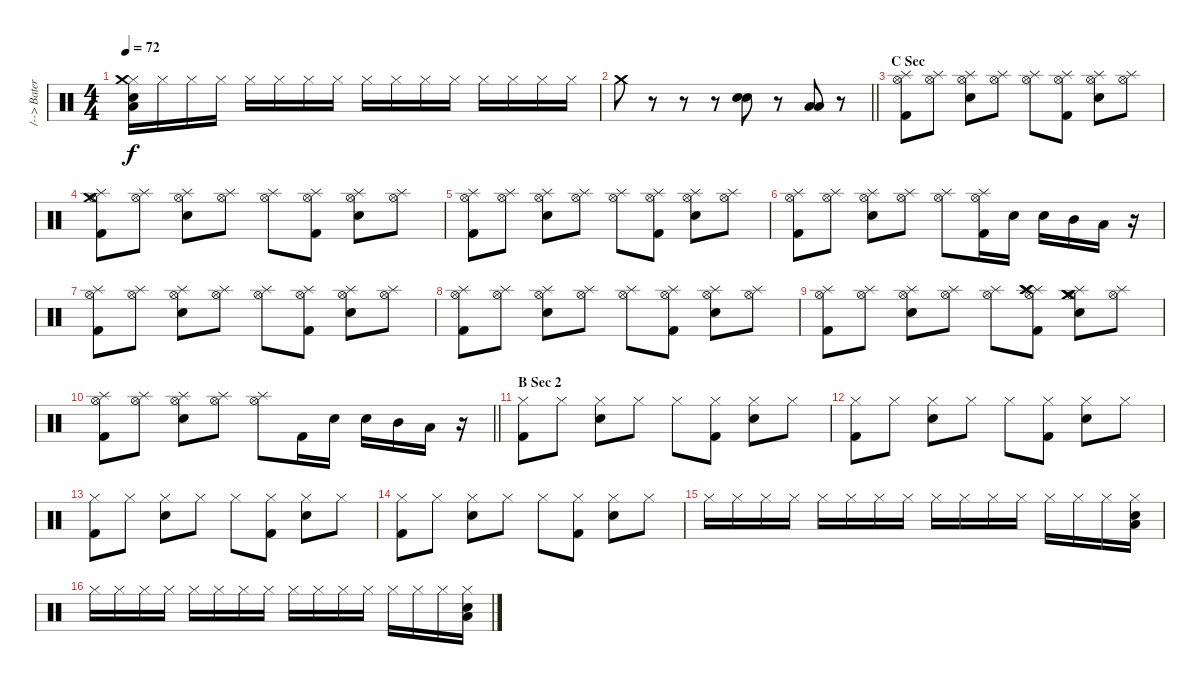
\track ("/--> Bateria <---/" "/--> Bater") {instrument percussion}
\staff {score}
\articulation defaults
\ts (4 4)
\tempo 72
\clef neutral
\ks c
("Hi-Hat (closed)" "Crash medium (hit)" "Snare (hit) 2" "Low Tom (hit)").16{dy f} "Hi-Hat (closed)".16 "Hi-Hat (closed)".16 "Hi-Hat (closed)".16 "Hi-Hat (closed)".16 "Hi-Hat (closed)".16 "Hi-Hat (closed)".16 "Hi-Hat (closed)".16 "Hi-Hat (closed)".16 "Hi-Hat (closed)".16 "Hi-Hat (closed)".16 "Hi-Hat (closed)".16 "Hi-Hat (closed)".16 "Hi-Hat (closed)".16 "Hi-Hat (closed)".16 "Hi-Hat (closed)".16 |
\barLineRight lightlight "Crash medium (hit)".8
r.8 r.8 r.8 ("Electric Snare (hit)" "Electric Snare (hit)").8 r.8 ("Low Tom (hit)" "Low Tom (hit)").8 r.8 |
\section ("" "C Sec")
("Hi-Hat (open)" "Splash (hit)" "Kick (hit) 2").8 ("Hi-Hat (open)" "Splash (hit)").8 ("Hi-Hat (open)" "Splash (hit)" "Electric Snare (hit)").8 ("Hi-Hat (open)" "Splash (hit)").8 ("Hi-Hat (open)" "Splash (hit)").8 ("Hi-Hat (open)" "Splash (hit)" "Kick (hit) 2").8 ("Hi-Hat (open)" "Splash (hit)" "Electric Snare (hit)").8 ("Hi-Hat (open)" "Splash (hit)").8 |
("Hi-Hat (open)" "Splash (hit)" "Crash medium (hit)" "Kick (hit) 2").8 ("Hi-Hat (open)" "Splash (hit)").8 ("Hi-Hat (open)" "Splash (hit)" "Electric Snare (hit)").8 ("Hi-Hat (open)" "Splash (hit)").8 ("Hi-Hat (open)" "Splash (hit)").8 ("Hi-Hat (open)" "Splash (hit)" "Kick (hit) 2").8 ("Hi-Hat (open)" "Splash (hit)" "Electric Snare (hit)").8 ("Hi-Hat (open)" "Splash (hit)").8 |
("Hi-Hat (open)" "Splash (hit)" "Kick (hit) 2").8 ("Hi-Hat (open)" "Splash (hit)").8 ("Hi-Hat (open)" "Splash (hit)" "Electric Snare (hit)").8 ("Hi-Hat (open)" "Splash (hit)").8 ("Hi-Hat (open)" "Splash (hit)").8 ("Hi-Hat (open)" "Splash (hit)" "Kick (hit) 2").8 ("Hi-Hat (open)" "Splash (hit)" "Electric Snare (hit)").8 ("Hi-Hat (open)" "Splash (hit)").8 |
("Hi-Hat (open)" "Splash (hit)" "Kick (hit) 2").8 ("Hi-Hat (open)" "Splash (hit)").8 ("Hi-Hat (open)" "Splash (hit)" "Electric Snare (hit)").8 ("Hi-Hat (open)" "Splash (hit)").8 ("Hi-Hat (open)" "Splash (hit)").8 ("Hi-Hat (open)" "Splash (hit)" "Kick (hit) 2").16 "Electric Snare (hit)".16 "Electric Snare (hit)".16 "Mid Tom (hit)".16 "Low Tom (hit)".16 r.16 |
("Hi-Hat (open)" "Splash (hit)" "Kick (hit) 2").8 ("Hi-Hat (open)" "Splash (hit)").8 ("Hi-Hat (open)" "Splash (hit)" "Electric Snare (hit)").8 ("Hi-Hat (open)" "Splash (hit)").8 ("Hi-Hat (open)" "Splash (hit)").8 ("Hi-Hat (open)" "Splash (hit)" "Kick (hit) 2").8 ("Hi-Hat (open)" "Splash (hit)" "Electric Snare (hit)").8 ("Hi-Hat (open)" "Splash (hit)").8 |
("Hi-Hat (open)" "Splash (hit)" "Kick (hit) 2").8 ("Hi-Hat (open)" "Splash (hit)").8 ("Hi-Hat (open)" "Splash (hit)" "Electric Snare (hit)").8 ("Hi-Hat (open)" "Splash (hit)").8 ("Hi-Hat (open)" "Splash (hit)").8 ("Hi-Hat (open)" "Splash (hit)" "Kick (hit) 2").8 ("Hi-Hat (open)" "Splash (hit)" "Electric Snare (hit)").8 ("Hi-Hat (open)" "Splash (hit)").8 |
("Hi-Hat (open)" "Splash (hit)" "Kick (hit) 2").8 ("Hi-Hat (open)" "Splash (hit)").8 ("Hi-Hat (open)" "Splash (hit)" "Electric Snare (hit)").8 ("Hi-Hat (open)" "Splash (hit)").8 ("Hi-Hat (open)" "Splash (hit)").8 ("Hi-Hat (open)" "Splash (hit)" "Crash high (hit)" "Crash high (hit)" "Kick (hit) 2").8 ("Hi-Hat (open)" "Splash (hit)" "Crash medium (hit)" "Crash medium (hit)" "Electric Snare (hit)").8 ("Hi-Hat (open)" "Splash (hit)").8 |
\barLineRight lightlight
("Hi-Hat (open)" "Splash (hit)" "Kick (hit) 2").8 ("Hi-Hat (open)" "Splash (hit)").8 ("Hi-Hat (open)" "Splash (hit)" "Electric Snare (hit)").8 ("Hi-Hat (open)" "Splash (hit)").8 ("Hi-Hat (open)" "Splash (hit)").8 "Kick (hit) 2".16 "Electric Snare (hit)".16 "Electric Snare (hit)".16 "Mid Tom (hit)".16 "Low Tom (hit)".16 r.16 |
\section ("" "B Sec 2")
("Hi-Hat (closed)" "Kick (hit) 2").8 "Hi-Hat (closed)".8 ("Hi-Hat (closed)" "Electric Snare (hit)").8 "Hi-Hat (closed)".8 "Hi-Hat (closed)".8 ("Hi-Hat (closed)" "Kick (hit) 2").8 ("Hi-Hat (closed)" "Electric Snare (hit)").8 "Hi-Hat (closed)".8 |
("Hi-Hat (closed)" "Kick (hit) 2").8 "Hi-Hat (closed)".8 ("Hi-Hat (closed)" "Electric Snare (hit)").8 "Hi-Hat (closed)".8 "Hi-Hat (closed)".8 ("Hi-Hat (closed)" "Kick (hit) 2").8 ("Hi-Hat (closed)" "Electric Snare (hit)").8 "Hi-Hat (closed)".8 |
("Hi-Hat (closed)" "Kick (hit) 2").8 "Hi-Hat (closed)".8 ("Hi-Hat (closed)" "Electric Snare (hit)").8 "Hi-Hat (closed)".8 "Hi-Hat (closed)".8 ("Hi-Hat (closed)" "Kick (hit) 2").8 ("Hi-Hat (closed)" "Electric Snare (hit)").8 "Hi-Hat (closed)".8 |
("Hi-Hat (closed)" "Kick (hit) 2").8 "Hi-Hat (closed)".8 ("Hi-Hat (closed)" "Electric Snare (hit)").8 "Hi-Hat (closed)".8 "Hi-Hat (closed)".8 ("Hi-Hat (closed)" "Kick (hit) 2").8 ("Hi-Hat (closed)" "Electric Snare (hit)").8 "Hi-Hat (closed)".8 |
"Hi-Hat (closed)".16 "Hi-Hat (closed)".16 "Hi-Hat (closed)".16 "Hi-Hat (closed)".16 "Hi-Hat (closed)".16 "Hi-Hat (closed)".16 "Hi-Hat (closed)".16 "Hi-Hat (closed)".16 "Hi-Hat (closed)".16 "Hi-Hat (closed)".16 "Hi-Hat (closed)".16 "Hi-Hat (closed)".16 "Hi-Hat (closed)".16 "Hi-Hat (closed)".16 "Hi-Hat (closed)".16 ("Hi-Hat (closed)" "Snare (hit) 2" "Low Tom (hit)").16 |
"Hi-Hat (closed)".16 "Hi-Hat (closed)".16 "Hi-Hat (closed)".16 "Hi-Hat (closed)".16 "Hi-Hat (closed)".16 "Hi-Hat (closed)".16 "Hi-Hat (closed)".16 "Hi-Hat (closed)".16 "Hi-Hat (closed)".16 "Hi-Hat (closed)".16 "Hi-Hat (closed)".16 "Hi-Hat (closed)".16 "Hi-Hat (closed)".16 "Hi-Hat (closed)".16 "Hi-Hat (closed)".16 ("Hi-Hat (closed)" "Snare (hit) 2" "Low Tom (hit)").16
